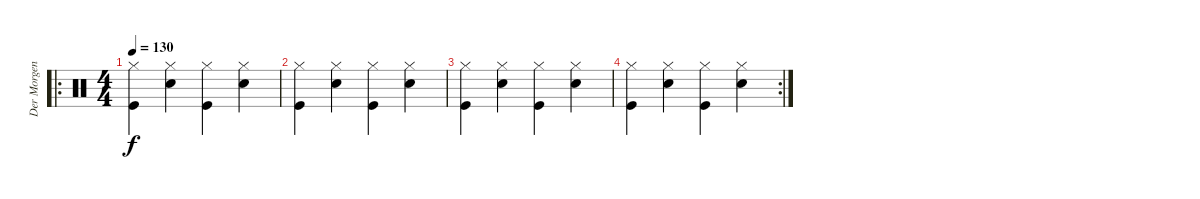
\track ("Der Morgenstern" "Der Morgen") {instrument percussion}
\staff {score}
\articulation defaults
\ro
\ts (4 4)
\tempo 130
\clef neutral
\ks c
("Hi-Hat (closed)" "Kick (hit)").4{dy f} ("Hi-Hat (closed)" "Snare (hit) 2").4 ("Hi-Hat (closed)" "Kick (hit)").4 ("Hi-Hat (closed)" "Snare (hit) 2").4 |
("Hi-Hat (closed)" "Kick (hit)").4 ("Hi-Hat (closed)" "Snare (hit) 2").4 ("Hi-Hat (closed)" "Kick (hit)").4 ("Hi-Hat (closed)" "Snare (hit) 2").4 |
("Hi-Hat (closed)" "Kick (hit)").4 ("Hi-Hat (closed)" "Snare (hit) 2").4 ("Hi-Hat (closed)" "Kick (hit)").4 ("Hi-Hat (closed)" "Snare (hit) 2").4 |
\rc 2
("Hi-Hat (closed)" "Kick (hit)").4 ("Hi-Hat (closed)" "Snare (hit) 2").4 ("Hi-Hat (closed)" "Kick (hit)").4 ("Hi-Hat (closed)" "Snare (hit) 2").4
